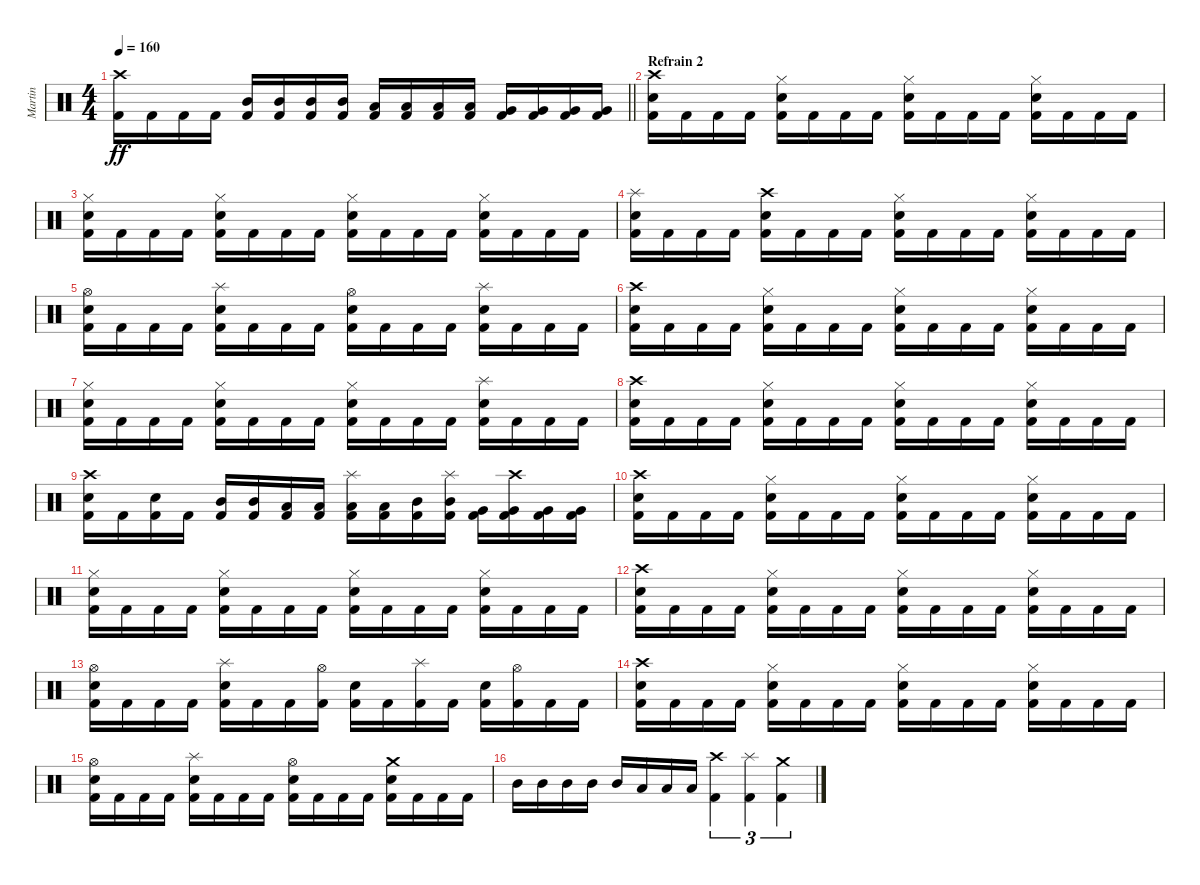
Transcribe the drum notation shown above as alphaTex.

\track ("Martin" "Martin") {instrument percussion}
\staff {score}
\articulation defaults
\ts (4 4)
\tempo 160
\clef neutral
\barLineRight lightlight
\ks c
("Crash high (hit)" "Kick (hit) 2").16{dy ff} "Kick (hit) 2".16 "Kick (hit) 2".16 "Kick (hit) 2".16 ("Mid Tom (hit)" "Kick (hit) 2").16 ("Mid Tom (hit)" "Kick (hit) 2").16 ("Mid Tom (hit)" "Kick (hit) 2").16 ("Mid Tom (hit)" "Kick (hit) 2").16 ("Low Tom (hit)" "Kick (hit) 2").16 ("Low Tom (hit)" "Kick (hit) 2").16 ("Low Tom (hit)" "Kick (hit) 2").16 ("Low Tom (hit)" "Kick (hit) 2").16 ("Very Low Tom (hit)" "Kick (hit) 2").16 ("Very Low Tom (hit)" "Kick (hit) 2").16 ("Very Low Tom (hit)" "Kick (hit) 2").16 ("Very Low Tom (hit)" "Kick (hit) 2").16 |
\section ("" "Refrain 2")
("Crash high (hit)" "Electric Snare (hit)" "Kick (hit) 2").16 "Kick (hit) 2".16 "Kick (hit) 2".16 "Kick (hit) 2".16 ("Hi-Hat (closed)" "Electric Snare (hit)" "Kick (hit) 2").16 "Kick (hit) 2".16 "Kick (hit) 2".16 "Kick (hit) 2".16 ("Hi-Hat (closed)" "Electric Snare (hit)" "Kick (hit) 2").16 "Kick (hit) 2".16 "Kick (hit) 2".16 "Kick (hit) 2".16 ("Hi-Hat (closed)" "Electric Snare (hit)" "Kick (hit) 2").16 "Kick (hit) 2".16 "Kick (hit) 2".16 "Kick (hit) 2".16 |
("Hi-Hat (closed)" "Electric Snare (hit)" "Kick (hit) 2").16 "Kick (hit) 2".16 "Kick (hit) 2".16 "Kick (hit) 2".16 ("Hi-Hat (closed)" "Electric Snare (hit)" "Kick (hit) 2").16 "Kick (hit) 2".16 "Kick (hit) 2".16 "Kick (hit) 2".16 ("Hi-Hat (closed)" "Electric Snare (hit)" "Kick (hit) 2").16 "Kick (hit) 2".16 "Kick (hit) 2".16 "Kick (hit) 2".16 ("Hi-Hat (closed)" "Electric Snare (hit)" "Kick (hit) 2").16 "Kick (hit) 2".16 "Kick (hit) 2".16 "Kick (hit) 2".16 |
("Splash (hit)" "Electric Snare (hit)" "Kick (hit) 2").16 "Kick (hit) 2".16 "Kick (hit) 2".16 "Kick (hit) 2".16 ("Crash high (hit)" "Electric Snare (hit)" "Kick (hit) 2").16 "Kick (hit) 2".16 "Kick (hit) 2".16 "Kick (hit) 2".16 ("Hi-Hat (closed)" "Electric Snare (hit)" "Kick (hit) 2").16 "Kick (hit) 2".16 "Kick (hit) 2".16 "Kick (hit) 2".16 ("Hi-Hat (closed)" "Electric Snare (hit)" "Kick (hit) 2").16 "Kick (hit) 2".16 "Kick (hit) 2".16 "Kick (hit) 2".16 |
("Hi-Hat (open)" "Electric Snare (hit)" "Kick (hit) 2").16 "Kick (hit) 2".16 "Kick (hit) 2".16 "Kick (hit) 2".16 ("Splash (hit)" "Electric Snare (hit)" "Kick (hit) 2").16 "Kick (hit) 2".16 "Kick (hit) 2".16 "Kick (hit) 2".16 ("Hi-Hat (open)" "Electric Snare (hit)" "Kick (hit) 2").16 "Kick (hit) 2".16 "Kick (hit) 2".16 "Kick (hit) 2".16 ("Splash (hit)" "Electric Snare (hit)" "Kick (hit) 2").16 "Kick (hit) 2".16 "Kick (hit) 2".16 "Kick (hit) 2".16 |
("Crash high (hit)" "Electric Snare (hit)" "Kick (hit) 2").16 "Kick (hit) 2".16 "Kick (hit) 2".16 "Kick (hit) 2".16 ("Hi-Hat (closed)" "Electric Snare (hit)" "Kick (hit) 2").16 "Kick (hit) 2".16 "Kick (hit) 2".16 "Kick (hit) 2".16 ("Hi-Hat (closed)" "Electric Snare (hit)" "Kick (hit) 2").16 "Kick (hit) 2".16 "Kick (hit) 2".16 "Kick (hit) 2".16 ("Hi-Hat (closed)" "Electric Snare (hit)" "Kick (hit) 2").16 "Kick (hit) 2".16 "Kick (hit) 2".16 "Kick (hit) 2".16 |
("Hi-Hat (closed)" "Electric Snare (hit)" "Kick (hit) 2").16 "Kick (hit) 2".16 "Kick (hit) 2".16 "Kick (hit) 2".16 ("Hi-Hat (closed)" "Electric Snare (hit)" "Kick (hit) 2").16 "Kick (hit) 2".16 "Kick (hit) 2".16 "Kick (hit) 2".16 ("Hi-Hat (closed)" "Electric Snare (hit)" "Kick (hit) 2").16 "Kick (hit) 2".16 "Kick (hit) 2".16 "Kick (hit) 2".16 ("Splash (hit)" "Electric Snare (hit)" "Kick (hit) 2").16 "Kick (hit) 2".16 "Kick (hit) 2".16 "Kick (hit) 2".16 |
("Crash high (hit)" "Electric Snare (hit)" "Kick (hit) 2").16 "Kick (hit) 2".16 "Kick (hit) 2".16 "Kick (hit) 2".16 ("Hi-Hat (closed)" "Electric Snare (hit)" "Kick (hit) 2").16 "Kick (hit) 2".16 "Kick (hit) 2".16 "Kick (hit) 2".16 ("Hi-Hat (closed)" "Electric Snare (hit)" "Kick (hit) 2").16 "Kick (hit) 2".16 "Kick (hit) 2".16 "Kick (hit) 2".16 ("Hi-Hat (closed)" "Electric Snare (hit)" "Kick (hit) 2").16 "Kick (hit) 2".16 "Kick (hit) 2".16 "Kick (hit) 2".16 |
("Crash high (hit)" "Electric Snare (hit)" "Kick (hit) 2").16 "Kick (hit) 2".16 ("Electric Snare (hit)" "Kick (hit) 2").16 "Kick (hit) 2".16 ("Mid Tom (hit)" "Kick (hit) 2").16 ("Mid Tom (hit)" "Kick (hit) 2").16 ("Low Tom (hit)" "Kick (hit) 2").16 ("Low Tom (hit)" "Kick (hit) 2").16 ("Splash (hit)" "Low Tom (hit)" "Kick (hit) 2").16 ("Low Tom (hit)" "Kick (hit) 2").16 ("Mid Tom (hit)" "Kick (hit) 2").16 ("Splash (hit)" "Mid Tom (hit)" "Kick (hit) 2").16 ("Very Low Tom (hit)" "Kick (hit) 2").16 ("Crash high (hit)" "Very Low Tom (hit)" "Kick (hit) 2").16 ("Very Low Tom (hit)" "Kick (hit) 2").16 ("Very Low Tom (hit)" "Kick (hit) 2").16 |
("Crash high (hit)" "Electric Snare (hit)" "Kick (hit) 2").16 "Kick (hit) 2".16 "Kick (hit) 2".16 "Kick (hit) 2".16 ("Hi-Hat (closed)" "Electric Snare (hit)" "Kick (hit) 2").16 "Kick (hit) 2".16 "Kick (hit) 2".16 "Kick (hit) 2".16 ("Hi-Hat (closed)" "Electric Snare (hit)" "Kick (hit) 2").16 "Kick (hit) 2".16 "Kick (hit) 2".16 "Kick (hit) 2".16 ("Hi-Hat (closed)" "Electric Snare (hit)" "Kick (hit) 2").16 "Kick (hit) 2".16 "Kick (hit) 2".16 "Kick (hit) 2".16 |
("Hi-Hat (closed)" "Electric Snare (hit)" "Kick (hit) 2").16 "Kick (hit) 2".16 "Kick (hit) 2".16 "Kick (hit) 2".16 ("Hi-Hat (closed)" "Electric Snare (hit)" "Kick (hit) 2").16 "Kick (hit) 2".16 "Kick (hit) 2".16 "Kick (hit) 2".16 ("Hi-Hat (closed)" "Electric Snare (hit)" "Kick (hit) 2").16 "Kick (hit) 2".16 "Kick (hit) 2".16 "Kick (hit) 2".16 ("Hi-Hat (closed)" "Electric Snare (hit)" "Kick (hit) 2").16 "Kick (hit) 2".16 "Kick (hit) 2".16 "Kick (hit) 2".16 |
("Crash high (hit)" "Electric Snare (hit)" "Kick (hit) 2").16 "Kick (hit) 2".16 "Kick (hit) 2".16 "Kick (hit) 2".16 ("Hi-Hat (closed)" "Electric Snare (hit)" "Kick (hit) 2").16 "Kick (hit) 2".16 "Kick (hit) 2".16 "Kick (hit) 2".16 ("Hi-Hat (closed)" "Electric Snare (hit)" "Kick (hit) 2").16 "Kick (hit) 2".16 "Kick (hit) 2".16 "Kick (hit) 2".16 ("Hi-Hat (closed)" "Electric Snare (hit)" "Kick (hit) 2").16 "Kick (hit) 2".16 "Kick (hit) 2".16 "Kick (hit) 2".16 |
("Hi-Hat (open)" "Electric Snare (hit)" "Kick (hit) 2").16 "Kick (hit) 2".16 "Kick (hit) 2".16 "Kick (hit) 2".16 ("Splash (hit)" "Electric Snare (hit)" "Kick (hit) 2").16 "Kick (hit) 2".16 "Kick (hit) 2".16 ("Hi-Hat (open)" "Kick (hit) 2").16 ("Electric Snare (hit)" "Kick (hit) 2").16 "Kick (hit) 2".16 ("Splash (hit)" "Kick (hit) 2").16 "Kick (hit) 2".16 ("Electric Snare (hit)" "Kick (hit) 2").16 ("Hi-Hat (open)" "Kick (hit) 2").16 "Kick (hit) 2".16 "Kick (hit) 2".16 |
("Crash high (hit)" "Electric Snare (hit)" "Kick (hit) 2").16 "Kick (hit) 2".16 "Kick (hit) 2".16 "Kick (hit) 2".16 ("Hi-Hat (closed)" "Electric Snare (hit)" "Kick (hit) 2").16 "Kick (hit) 2".16 "Kick (hit) 2".16 "Kick (hit) 2".16 ("Hi-Hat (closed)" "Electric Snare (hit)" "Kick (hit) 2").16 "Kick (hit) 2".16 "Kick (hit) 2".16 "Kick (hit) 2".16 ("Hi-Hat (closed)" "Electric Snare (hit)" "Kick (hit) 2").16 "Kick (hit) 2".16 "Kick (hit) 2".16 "Kick (hit) 2".16 |
("Hi-Hat (open)" "Electric Snare (hit)" "Kick (hit) 2").16 "Kick (hit) 2".16 "Kick (hit) 2".16 "Kick (hit) 2".16 ("Splash (hit)" "Electric Snare (hit)" "Kick (hit) 2").16 "Kick (hit) 2".16 "Kick (hit) 2".16 "Kick (hit) 2".16 ("Hi-Hat (open)" "Electric Snare (hit)" "Kick (hit) 2").16 "Kick (hit) 2".16 "Kick (hit) 2".16 "Kick (hit) 2".16 ("Crash medium (hit)" "Electric Snare (hit)" "Kick (hit) 2").16 "Kick (hit) 2".16 "Kick (hit) 2".16 "Kick (hit) 2".16 |
"Mid Tom (hit)".16 "Mid Tom (hit)".16 "Mid Tom (hit)".16 "Mid Tom (hit)".16 "Mid Tom (hit)".16 "Low Tom (hit)".16 "Low Tom (hit)".16 "Low Tom (hit)".16 ("Crash high (hit)" "Kick (hit) 2").4{tu (3 2)} ("Splash (hit)" "Kick (hit) 2").4{tu (3 2)} ("Crash medium (hit)" "Kick (hit) 2").4{tu (3 2)}
